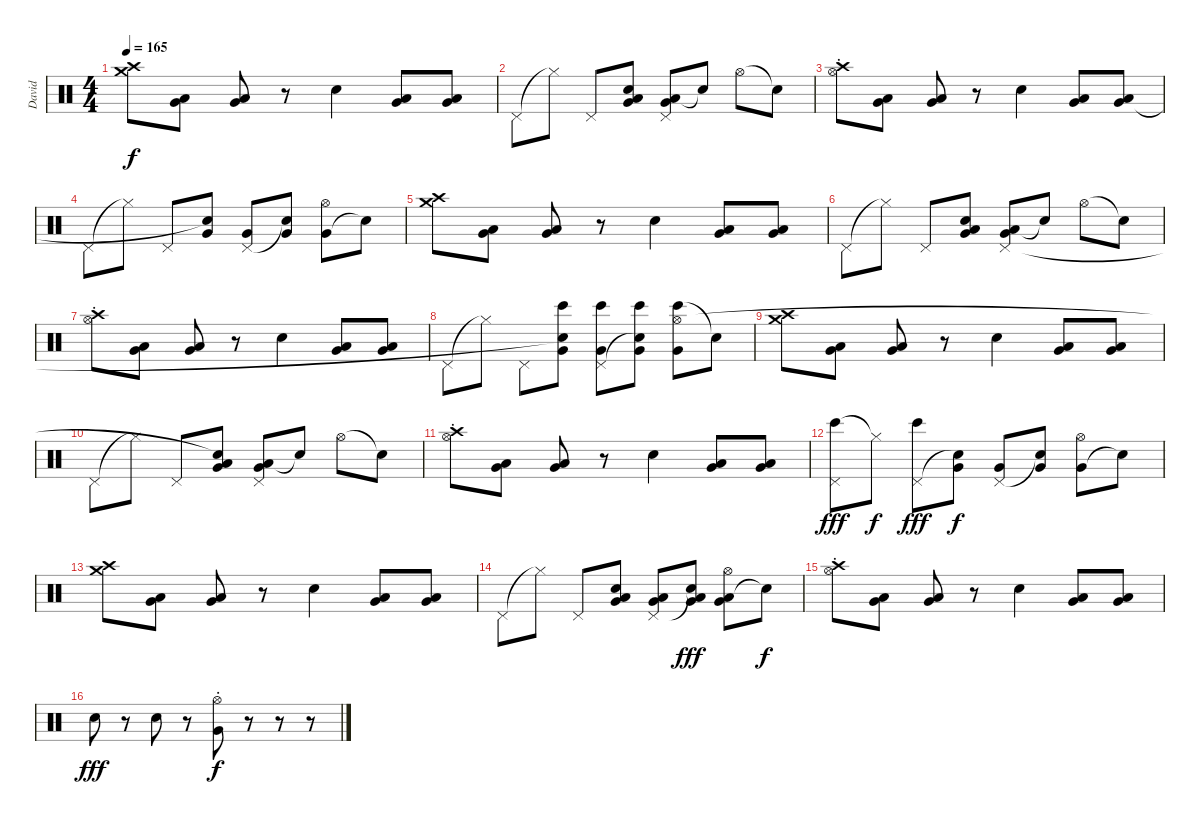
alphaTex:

\track ("David" "David") {instrument percussion}
\staff {score}
\articulation defaults
\ts (4 4)
\tempo 165
\clef neutral
\ks c
("Crash high (hit)" "Crash medium (hit)").8{dy f} ("Low Floor Tom (hit)" "Very Low Tom (hit)").8 ("Low Floor Tom (hit)" "Very Low Tom (hit)").8 r.8 "Electric Snare (hit)".4 ("Low Floor Tom (hit)" "Very Low Tom (hit)").8 ("Low Floor Tom (hit)" "Very Low Tom (hit)").8 |
"Pedal Hi-Hat (hit)".8 "Hi-Hat (closed)"{t}.8 "Pedal Hi-Hat (hit)".8 ("Low Tom (hit)" "Very Low Tom (hit)" "Snare (hit)"{t}).8 ("Low Floor Tom (hit)" "Very Low Tom (hit)" "Pedal Hi-Hat (hit)").8 "Snare (hit)"{t}.8 "Hi-Hat (open)".8 "Snare (hit)"{t}.8 |
("Crash high (hit)" "Hi-Hat (open)"{st}).8 ("Low Floor Tom (hit)" "Very Low Tom (hit)").8 ("Low Floor Tom (hit)" "Very Low Tom (hit)").8 r.8 "Electric Snare (hit)".4 ("Low Floor Tom (hit)" "Very Low Tom (hit)").8 ("Low Floor Tom (hit)" "Very Low Tom (hit)").8 |
"Pedal Hi-Hat (hit)".8 "Hi-Hat (closed)"{t}.8 "Pedal Hi-Hat (hit)".8 ("Very Low Tom (hit)" "Snare (hit)"{t}).8 ("Very Low Tom (hit)" "Pedal Hi-Hat (hit)").8 ("Very Low Tom (hit)" "Snare (hit)"{t}).8 ("Very Low Tom (hit)" "Hi-Hat (open)").8 "Snare (hit)"{t}.8 |
("Crash high (hit)" "Crash medium (hit)").8 ("Low Floor Tom (hit)" "Very Low Tom (hit)").8 ("Low Floor Tom (hit)" "Very Low Tom (hit)").8 r.8 "Electric Snare (hit)".4 ("Low Floor Tom (hit)" "Very Low Tom (hit)").8 ("Low Floor Tom (hit)" "Very Low Tom (hit)").8 |
"Pedal Hi-Hat (hit)".8 "Hi-Hat (closed)"{t}.8 "Pedal Hi-Hat (hit)".8 ("Low Tom (hit)" "Very Low Tom (hit)" "Snare (hit)").8 ("Low Floor Tom (hit)" "Very Low Tom (hit)" "Pedal Hi-Hat (hit)").8 "Snare (hit)"{t}.8 "Hi-Hat (open)".8 "Snare (hit)"{t}.8 |
("Crash high (hit)" "Hi-Hat (open)"{st}).8 ("Low Floor Tom (hit)" "Very Low Tom (hit)").8 ("Low Floor Tom (hit)" "Very Low Tom (hit)").8 r.8 "Electric Snare (hit)".4 ("Low Floor Tom (hit)" "Very Low Tom (hit)").8 ("Low Floor Tom (hit)" "Very Low Tom (hit)").8 |
"Pedal Hi-Hat (hit)".8 "Hi-Hat (closed)"{t}.8 "Pedal Hi-Hat (hit)".8 ("Bongo High (hit)" "Very Low Tom (hit)" "Snare (hit)"{t}).8 ("Bongo High (hit)" "Very Low Tom (hit)" "Pedal Hi-Hat (hit)").8 ("Bongo High (hit)" "Very Low Tom (hit)" "Snare (hit)"{t}).8 ("Bongo High (hit)" "Very Low Tom (hit)" "Hi-Hat (open)").8 "Snare (hit)"{t}.8 |
("Crash high (hit)" "Crash medium (hit)").8 ("Low Floor Tom (hit)" "Very Low Tom (hit)").8 ("Low Floor Tom (hit)" "Very Low Tom (hit)").8 r.8 "Electric Snare (hit)".4 ("Low Floor Tom (hit)" "Very Low Tom (hit)").8 ("Low Floor Tom (hit)" "Very Low Tom (hit)").8 |
"Pedal Hi-Hat (hit)".8 "Hi-Hat (closed)"{t}.8 "Pedal Hi-Hat (hit)".8 ("Low Tom (hit)" "Very Low Tom (hit)" "Snare (hit)"{t}).8 ("Low Floor Tom (hit)" "Very Low Tom (hit)" "Pedal Hi-Hat (hit)").8 "Snare (hit)"{t}.8 "Hi-Hat (open)".8 "Snare (hit)"{t}.8 |
("Crash high (hit)" "Hi-Hat (open)"{st}).8 ("Low Floor Tom (hit)" "Very Low Tom (hit)").8 ("Low Floor Tom (hit)" "Very Low Tom (hit)").8 r.8 "Electric Snare (hit)".4 ("Low Floor Tom (hit)" "Very Low Tom (hit)").8 ("Low Floor Tom (hit)" "Very Low Tom (hit)").8 |
("Bongo High (hit)" "Pedal Hi-Hat (hit)").8{dy fff} "Hi-Hat (closed)"{t}.8{dy f} ("Bongo High (hit)" "Pedal Hi-Hat (hit)").8{dy fff} ("Very Low Tom (hit)" "Snare (hit)"{t}).8{dy f} ("Very Low Tom (hit)" "Pedal Hi-Hat (hit)").8 ("Very Low Tom (hit)" "Snare (hit)"{t}).8 ("Very Low Tom (hit)" "Hi-Hat (open)").8 "Snare (hit)"{t}.8 |
("Crash high (hit)" "Crash medium (hit)").8 ("Low Floor Tom (hit)" "Very Low Tom (hit)").8 ("Low Floor Tom (hit)" "Very Low Tom (hit)").8 r.8 "Electric Snare (hit)".4 ("Low Floor Tom (hit)" "Very Low Tom (hit)").8 ("Low Floor Tom (hit)" "Very Low Tom (hit)").8 |
"Pedal Hi-Hat (hit)".8 "Hi-Hat (closed)"{t}.8 "Pedal Hi-Hat (hit)".8 ("Low Tom (hit)" "Very Low Tom (hit)" "Snare (hit)").8 ("Low Floor Tom (hit)" "Very Low Tom (hit)" "Pedal Hi-Hat (hit)").8 ("Low Tom (hit)" "Very Low Tom (hit)" "Snare (hit)"{t}).8{dy fff} ("Low Floor Tom (hit)" "Very Low Tom (hit)" "Hi-Hat (open)").8 "Snare (hit)"{t}.8{dy f} |
("Crash high (hit)" "Hi-Hat (open)"{st}).8 ("Low Floor Tom (hit)" "Very Low Tom (hit)").8 ("Low Floor Tom (hit)" "Very Low Tom (hit)").8 r.8 "Electric Snare (hit)".4 ("Low Floor Tom (hit)" "Very Low Tom (hit)").8 ("Low Floor Tom (hit)" "Very Low Tom (hit)").8 |
"Electric Snare (hit)".8{dy fff} r.8 "Electric Snare (hit)".8 r.8 ("Very Low Tom (hit)" "Hi-Hat (open)"{st}).8{dy f} r.8 r.8 r.8
